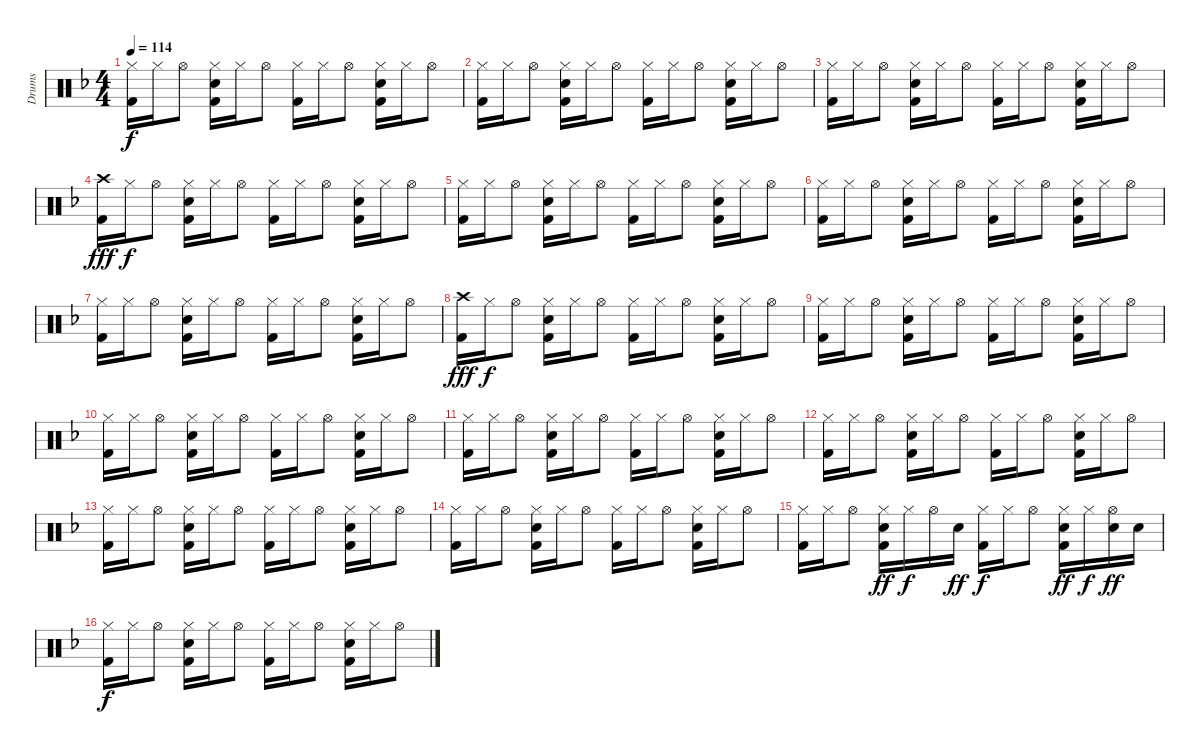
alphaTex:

\track ("Drums" "Drums") {instrument percussion}
\staff {score}
\articulation defaults
\ts (4 4)
\tempo 114
\clef neutral
\ks f
("Hi-Hat (closed)" "Kick (hit) 2").16{dy f} "Hi-Hat (closed)".16 "Hi-Hat (open)".8 ("Hi-Hat (closed)" "Electric Snare (hit)" "Kick (hit) 2").16 "Hi-Hat (closed)".16 "Hi-Hat (open)".8 ("Hi-Hat (closed)" "Kick (hit) 2").16 "Hi-Hat (closed)".16 "Hi-Hat (open)".8 ("Hi-Hat (closed)" "Electric Snare (hit)" "Kick (hit) 2").16 "Hi-Hat (closed)".16 "Hi-Hat (open)".8 |
("Hi-Hat (closed)" "Kick (hit) 2").16 "Hi-Hat (closed)".16 "Hi-Hat (open)".8 ("Hi-Hat (closed)" "Electric Snare (hit)" "Kick (hit) 2").16 "Hi-Hat (closed)".16 "Hi-Hat (open)".8 ("Hi-Hat (closed)" "Kick (hit) 2").16 "Hi-Hat (closed)".16 "Hi-Hat (open)".8 ("Hi-Hat (closed)" "Electric Snare (hit)" "Kick (hit) 2").16 "Hi-Hat (closed)".16 "Hi-Hat (open)".8 |
("Hi-Hat (closed)" "Kick (hit) 2").16 "Hi-Hat (closed)".16 "Hi-Hat (open)".8 ("Hi-Hat (closed)" "Electric Snare (hit)" "Kick (hit) 2").16 "Hi-Hat (closed)".16 "Hi-Hat (open)".8 ("Hi-Hat (closed)" "Kick (hit) 2").16 "Hi-Hat (closed)".16 "Hi-Hat (open)".8 ("Hi-Hat (closed)" "Electric Snare (hit)" "Kick (hit) 2").16 "Hi-Hat (closed)".16 "Hi-Hat (open)".8 |
("Crash high (hit)" "Kick (hit) 2").16{dy fff} "Hi-Hat (closed)".16{dy f} "Hi-Hat (open)".8 ("Hi-Hat (closed)" "Electric Snare (hit)" "Kick (hit) 2").16 "Hi-Hat (closed)".16 "Hi-Hat (open)".8 ("Hi-Hat (closed)" "Kick (hit) 2").16 "Hi-Hat (closed)".16 "Hi-Hat (open)".8 ("Hi-Hat (closed)" "Electric Snare (hit)" "Kick (hit) 2").16 "Hi-Hat (closed)".16 "Hi-Hat (open)".8 |
("Hi-Hat (closed)" "Kick (hit) 2").16 "Hi-Hat (closed)".16 "Hi-Hat (open)".8 ("Hi-Hat (closed)" "Electric Snare (hit)" "Kick (hit) 2").16 "Hi-Hat (closed)".16 "Hi-Hat (open)".8 ("Hi-Hat (closed)" "Kick (hit) 2").16 "Hi-Hat (closed)".16 "Hi-Hat (open)".8 ("Hi-Hat (closed)" "Electric Snare (hit)" "Kick (hit) 2").16 "Hi-Hat (closed)".16 "Hi-Hat (open)".8 |
("Hi-Hat (closed)" "Kick (hit) 2").16 "Hi-Hat (closed)".16 "Hi-Hat (open)".8 ("Hi-Hat (closed)" "Electric Snare (hit)" "Kick (hit) 2").16 "Hi-Hat (closed)".16 "Hi-Hat (open)".8 ("Hi-Hat (closed)" "Kick (hit) 2").16 "Hi-Hat (closed)".16 "Hi-Hat (open)".8 ("Hi-Hat (closed)" "Electric Snare (hit)" "Kick (hit) 2").16 "Hi-Hat (closed)".16 "Hi-Hat (open)".8 |
("Hi-Hat (closed)" "Kick (hit) 2").16 "Hi-Hat (closed)".16 "Hi-Hat (open)".8 ("Hi-Hat (closed)" "Electric Snare (hit)" "Kick (hit) 2").16 "Hi-Hat (closed)".16 "Hi-Hat (open)".8 ("Hi-Hat (closed)" "Kick (hit) 2").16 "Hi-Hat (closed)".16 "Hi-Hat (open)".8 ("Hi-Hat (closed)" "Electric Snare (hit)" "Kick (hit) 2").16 "Hi-Hat (closed)".16 "Hi-Hat (open)".8 |
("Crash high (hit)" "Kick (hit) 2").16{dy fff} "Hi-Hat (closed)".16{dy f} "Hi-Hat (open)".8 ("Hi-Hat (closed)" "Electric Snare (hit)" "Kick (hit) 2").16 "Hi-Hat (closed)".16 "Hi-Hat (open)".8 ("Hi-Hat (closed)" "Kick (hit) 2").16 "Hi-Hat (closed)".16 "Hi-Hat (open)".8 ("Hi-Hat (closed)" "Electric Snare (hit)" "Kick (hit) 2").16 "Hi-Hat (closed)".16 "Hi-Hat (open)".8 |
("Hi-Hat (closed)" "Kick (hit) 2").16 "Hi-Hat (closed)".16 "Hi-Hat (open)".8 ("Hi-Hat (closed)" "Electric Snare (hit)" "Kick (hit) 2").16 "Hi-Hat (closed)".16 "Hi-Hat (open)".8 ("Hi-Hat (closed)" "Kick (hit) 2").16 "Hi-Hat (closed)".16 "Hi-Hat (open)".8 ("Hi-Hat (closed)" "Electric Snare (hit)" "Kick (hit) 2").16 "Hi-Hat (closed)".16 "Hi-Hat (open)".8 |
("Hi-Hat (closed)" "Kick (hit) 2").16 "Hi-Hat (closed)".16 "Hi-Hat (open)".8 ("Hi-Hat (closed)" "Electric Snare (hit)" "Kick (hit) 2").16 "Hi-Hat (closed)".16 "Hi-Hat (open)".8 ("Hi-Hat (closed)" "Kick (hit) 2").16 "Hi-Hat (closed)".16 "Hi-Hat (open)".8 ("Hi-Hat (closed)" "Electric Snare (hit)" "Kick (hit) 2").16 "Hi-Hat (closed)".16 "Hi-Hat (open)".8 |
("Hi-Hat (closed)" "Kick (hit) 2").16 "Hi-Hat (closed)".16 "Hi-Hat (open)".8 ("Hi-Hat (closed)" "Electric Snare (hit)" "Kick (hit) 2").16 "Hi-Hat (closed)".16 "Hi-Hat (open)".8 ("Hi-Hat (closed)" "Kick (hit) 2").16 "Hi-Hat (closed)".16 "Hi-Hat (open)".8 ("Hi-Hat (closed)" "Electric Snare (hit)" "Kick (hit) 2").16 "Hi-Hat (closed)".16 "Hi-Hat (open)".8 |
("Hi-Hat (closed)" "Kick (hit) 2").16 "Hi-Hat (closed)".16 "Hi-Hat (open)".8 ("Hi-Hat (closed)" "Electric Snare (hit)" "Kick (hit) 2").16 "Hi-Hat (closed)".16 "Hi-Hat (open)".8 ("Hi-Hat (closed)" "Kick (hit) 2").16 "Hi-Hat (closed)".16 "Hi-Hat (open)".8 ("Hi-Hat (closed)" "Electric Snare (hit)" "Kick (hit) 2").16 "Hi-Hat (closed)".16 "Hi-Hat (open)".8 |
("Hi-Hat (closed)" "Kick (hit) 2").16 "Hi-Hat (closed)".16 "Hi-Hat (open)".8 ("Hi-Hat (closed)" "Electric Snare (hit)" "Kick (hit) 2").16 "Hi-Hat (closed)".16 "Hi-Hat (open)".8 ("Hi-Hat (closed)" "Kick (hit) 2").16 "Hi-Hat (closed)".16 "Hi-Hat (open)".8 ("Hi-Hat (closed)" "Electric Snare (hit)" "Kick (hit) 2").16 "Hi-Hat (closed)".16 "Hi-Hat (open)".8 |
("Hi-Hat (closed)" "Kick (hit) 2").16 "Hi-Hat (closed)".16 "Hi-Hat (open)".8 ("Hi-Hat (closed)" "Electric Snare (hit)" "Kick (hit) 2").16 "Hi-Hat (closed)".16 "Hi-Hat (open)".8 ("Hi-Hat (closed)" "Kick (hit) 2").16 "Hi-Hat (closed)".16 "Hi-Hat (open)".8 ("Hi-Hat (closed)" "Electric Snare (hit)" "Kick (hit) 2").16 "Hi-Hat (closed)".16 "Hi-Hat (open)".8 |
("Hi-Hat (closed)" "Kick (hit) 2").16 "Hi-Hat (closed)".16 "Hi-Hat (open)".8 ("Hi-Hat (closed)" "Electric Snare (hit)" "Kick (hit) 2").16{dy ff} "Hi-Hat (closed)".16{dy f} "Hi-Hat (open)".16 "Electric Snare (hit)".16{dy ff} ("Hi-Hat (closed)" "Kick (hit) 2").16{dy f} "Hi-Hat (closed)".16 "Hi-Hat (open)".8 ("Hi-Hat (closed)" "Electric Snare (hit)" "Kick (hit) 2").16{dy ff} "Hi-Hat (closed)".16{dy f} ("Hi-Hat (open)" "Electric Snare (hit)").16{dy ff} "Electric Snare (hit)".16 |
("Hi-Hat (closed)" "Kick (hit) 2").16{dy f} "Hi-Hat (closed)".16 "Hi-Hat (open)".8 ("Hi-Hat (closed)" "Electric Snare (hit)" "Kick (hit) 2").16 "Hi-Hat (closed)".16 "Hi-Hat (open)".8 ("Hi-Hat (closed)" "Kick (hit) 2").16 "Hi-Hat (closed)".16 "Hi-Hat (open)".8 ("Hi-Hat (closed)" "Electric Snare (hit)" "Kick (hit) 2").16 "Hi-Hat (closed)".16 "Hi-Hat (open)".8
